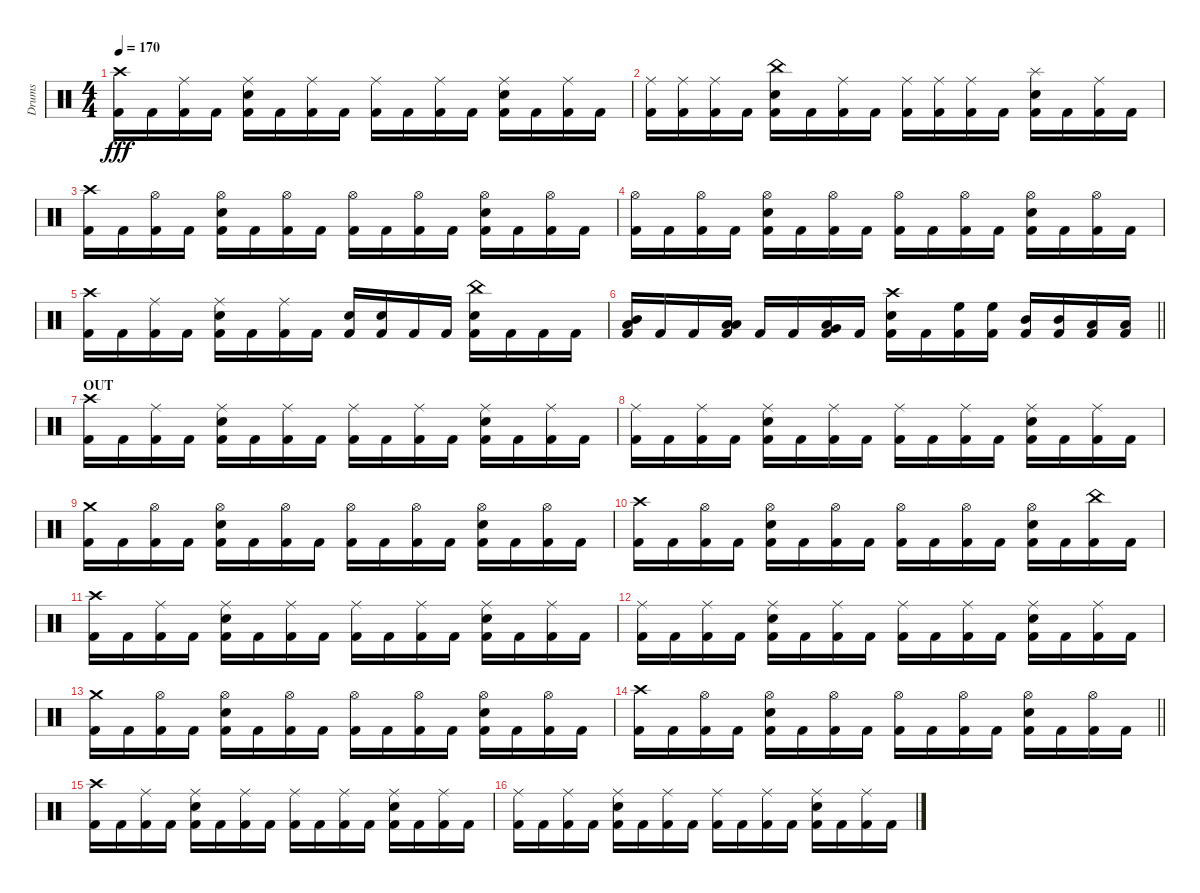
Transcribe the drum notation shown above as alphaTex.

\track ("Drums" "Drums") {instrument percussion}
\staff {score}
\articulation defaults
\ts (4 4)
\tempo 170
\clef neutral
\ks c
("Crash high (hit)" "Kick (hit) 2").16{dy fff} "Kick (hit) 2".16 ("Ride (middle)" "Kick (hit) 2").16 "Kick (hit) 2".16 ("Ride (middle)" "Snare (hit) 2" "Kick (hit) 2").16 "Kick (hit) 2".16 ("Ride (middle)" "Kick (hit) 2").16 "Kick (hit) 2".16 ("Ride (middle)" "Kick (hit) 2").16 "Kick (hit) 2".16 ("Ride (middle)" "Kick (hit) 2").16 "Kick (hit) 2".16 ("Ride (middle)" "Snare (hit) 2" "Kick (hit) 2").16 "Kick (hit) 2".16 ("Ride (middle)" "Kick (hit) 2").16 "Kick (hit) 2".16 |
("Ride (middle)" "Kick (hit) 2").16 ("Ride (middle)" "Kick (hit) 2").16 ("Ride (middle)" "Kick (hit) 2").16 "Kick (hit) 2".16 ("China (hit)" "Snare (hit) 2" "Kick (hit) 2").16 "Kick (hit) 2".16 ("Ride (middle)" "Kick (hit) 2").16 "Kick (hit) 2".16 ("Ride (middle)" "Kick (hit) 2").16 ("Ride (middle)" "Kick (hit) 2").16 ("Ride (middle)" "Kick (hit) 2").16 "Kick (hit) 2".16 ("Splash (hit)" "Snare (hit) 2" "Kick (hit) 2").16 "Kick (hit) 2".16 ("Ride (middle)" "Kick (hit) 2").16 "Kick (hit) 2".16 |
("Crash high (hit)" "Kick (hit) 2").16 "Kick (hit) 2".16 ("Hi-Hat (open)" "Kick (hit) 2").16 "Kick (hit) 2".16 ("Snare (hit) 2" "Hi-Hat (open)" "Kick (hit) 2").16 "Kick (hit) 2".16 ("Hi-Hat (open)" "Kick (hit) 2").16 "Kick (hit) 2".16 ("Hi-Hat (open)" "Kick (hit) 2").16 "Kick (hit) 2".16 ("Hi-Hat (open)" "Kick (hit) 2").16 "Kick (hit) 2".16 ("Snare (hit) 2" "Hi-Hat (open)" "Kick (hit) 2").16 "Kick (hit) 2".16 ("Hi-Hat (open)" "Kick (hit) 2").16 "Kick (hit) 2".16 |
("Hi-Hat (open)" "Kick (hit) 2").16 "Kick (hit) 2".16 ("Hi-Hat (open)" "Kick (hit) 2").16 "Kick (hit) 2".16 ("Snare (hit) 2" "Hi-Hat (open)" "Kick (hit) 2").16 "Kick (hit) 2".16 ("Hi-Hat (open)" "Kick (hit) 2").16 "Kick (hit) 2".16 ("Hi-Hat (open)" "Kick (hit) 2").16 "Kick (hit) 2".16 ("Hi-Hat (open)" "Kick (hit) 2").16 "Kick (hit) 2".16 ("Snare (hit) 2" "Hi-Hat (open)" "Kick (hit) 2").16 "Kick (hit) 2".16 ("Hi-Hat (open)" "Kick (hit) 2").16 "Kick (hit) 2".16 |
("Crash high (hit)" "Kick (hit) 2").16 "Kick (hit) 2".16 ("Ride (middle)" "Kick (hit) 2").16 "Kick (hit) 2".16 ("Ride (middle)" "Snare (hit) 2" "Kick (hit) 2").16 "Kick (hit) 2".16 ("Ride (middle)" "Kick (hit) 2").16 "Kick (hit) 2".16 ("Snare (hit) 2" "Kick (hit) 2").16 ("Snare (hit) 2" "Kick (hit) 2").16 "Kick (hit) 2".16 "Kick (hit) 2".16 ("China (hit)" "Snare (hit) 2" "Kick (hit) 2").16 "Kick (hit) 2".16 "Kick (hit) 2".16 "Kick (hit) 2".16 |
\barLineRight lightlight
("Mid Tom (hit)" "Low Floor Tom (hit)" "Kick (hit) 2").16 "Kick (hit) 2".16 "Kick (hit) 2".16 ("Low Tom (hit)" "Low Floor Tom (hit)" "Kick (hit) 2").16 "Kick (hit) 2".16 "Kick (hit) 2".16 ("Very Low Tom (hit)" "Low Floor Tom (hit)" "Kick (hit) 2").16 "Kick (hit) 2".16 ("Crash high (hit)" "Snare (hit) 2" "Kick (hit) 2").16 "Kick (hit) 2".16 ("High Floor Tom (hit)" "Kick (hit) 2").16 ("High Floor Tom (hit)" "Kick (hit) 2").16 ("Mid Tom (hit)" "Kick (hit) 2").16 ("Mid Tom (hit)" "Kick (hit) 2").16 ("Low Tom (hit)" "Kick (hit) 2").16 ("Low Tom (hit)" "Kick (hit) 2").16 |
\section ("" "OUT")
("Crash high (hit)" "Kick (hit) 2").16 "Kick (hit) 2".16 ("Ride (middle)" "Kick (hit) 2").16 "Kick (hit) 2".16 ("Ride (middle)" "Snare (hit) 2" "Kick (hit) 2").16 "Kick (hit) 2".16 ("Ride (middle)" "Kick (hit) 2").16 "Kick (hit) 2".16 ("Ride (middle)" "Kick (hit) 2").16 "Kick (hit) 2".16 ("Ride (middle)" "Kick (hit) 2").16 "Kick (hit) 2".16 ("Ride (middle)" "Snare (hit) 2" "Kick (hit) 2").16 "Kick (hit) 2".16 ("Ride (middle)" "Kick (hit) 2").16 "Kick (hit) 2".16 |
("Ride (middle)" "Kick (hit) 2").16 "Kick (hit) 2".16 ("Ride (middle)" "Kick (hit) 2").16 "Kick (hit) 2".16 ("Ride (middle)" "Snare (hit) 2" "Kick (hit) 2").16 "Kick (hit) 2".16 ("Ride (middle)" "Kick (hit) 2").16 "Kick (hit) 2".16 ("Ride (middle)" "Kick (hit) 2").16 "Kick (hit) 2".16 ("Ride (middle)" "Kick (hit) 2").16 "Kick (hit) 2".16 ("Ride (middle)" "Snare (hit) 2" "Kick (hit) 2").16 "Kick (hit) 2".16 ("Ride (middle)" "Kick (hit) 2").16 "Kick (hit) 2".16 |
("Crash medium (hit)" "Kick (hit) 2").16 "Kick (hit) 2".16 ("Hi-Hat (open)" "Kick (hit) 2").16 "Kick (hit) 2".16 ("Snare (hit) 2" "Hi-Hat (open)" "Kick (hit) 2").16 "Kick (hit) 2".16 ("Hi-Hat (open)" "Kick (hit) 2").16 "Kick (hit) 2".16 ("Hi-Hat (open)" "Kick (hit) 2").16 "Kick (hit) 2".16 ("Hi-Hat (open)" "Kick (hit) 2").16 "Kick (hit) 2".16 ("Snare (hit) 2" "Hi-Hat (open)" "Kick (hit) 2").16 "Kick (hit) 2".16 ("Hi-Hat (open)" "Kick (hit) 2").16 "Kick (hit) 2".16 |
("Crash high (hit)" "Kick (hit) 2").16 "Kick (hit) 2".16 ("Hi-Hat (open)" "Kick (hit) 2").16 "Kick (hit) 2".16 ("Snare (hit) 2" "Hi-Hat (open)" "Kick (hit) 2").16 "Kick (hit) 2".16 ("Hi-Hat (open)" "Kick (hit) 2").16 "Kick (hit) 2".16 ("Hi-Hat (open)" "Kick (hit) 2").16 "Kick (hit) 2".16 ("Hi-Hat (open)" "Kick (hit) 2").16 "Kick (hit) 2".16 ("Snare (hit) 2" "Hi-Hat (open)" "Kick (hit) 2").16 "Kick (hit) 2".16 ("China (hit)" "Kick (hit) 2").16 "Kick (hit) 2".16 |
("Crash high (hit)" "Kick (hit) 2").16 "Kick (hit) 2".16 ("Ride (middle)" "Kick (hit) 2").16 "Kick (hit) 2".16 ("Ride (middle)" "Snare (hit) 2" "Kick (hit) 2").16 "Kick (hit) 2".16 ("Ride (middle)" "Kick (hit) 2").16 "Kick (hit) 2".16 ("Ride (middle)" "Kick (hit) 2").16 "Kick (hit) 2".16 ("Ride (middle)" "Kick (hit) 2").16 "Kick (hit) 2".16 ("Ride (middle)" "Snare (hit) 2" "Kick (hit) 2").16 "Kick (hit) 2".16 ("Ride (middle)" "Kick (hit) 2").16 "Kick (hit) 2".16 |
("Ride (middle)" "Kick (hit) 2").16 "Kick (hit) 2".16 ("Ride (middle)" "Kick (hit) 2").16 "Kick (hit) 2".16 ("Ride (middle)" "Snare (hit) 2" "Kick (hit) 2").16 "Kick (hit) 2".16 ("Ride (middle)" "Kick (hit) 2").16 "Kick (hit) 2".16 ("Ride (middle)" "Kick (hit) 2").16 "Kick (hit) 2".16 ("Ride (middle)" "Kick (hit) 2").16 "Kick (hit) 2".16 ("Ride (middle)" "Snare (hit) 2" "Kick (hit) 2").16 "Kick (hit) 2".16 ("Ride (middle)" "Kick (hit) 2").16 "Kick (hit) 2".16 |
("Crash medium (hit)" "Kick (hit) 2").16 "Kick (hit) 2".16 ("Hi-Hat (open)" "Kick (hit) 2").16 "Kick (hit) 2".16 ("Snare (hit) 2" "Hi-Hat (open)" "Kick (hit) 2").16 "Kick (hit) 2".16 ("Hi-Hat (open)" "Kick (hit) 2").16 "Kick (hit) 2".16 ("Hi-Hat (open)" "Kick (hit) 2").16 "Kick (hit) 2".16 ("Hi-Hat (open)" "Kick (hit) 2").16 "Kick (hit) 2".16 ("Snare (hit) 2" "Hi-Hat (open)" "Kick (hit) 2").16 "Kick (hit) 2".16 ("Hi-Hat (open)" "Kick (hit) 2").16 "Kick (hit) 2".16 |
\barLineRight lightlight
("Crash high (hit)" "Kick (hit) 2").16 "Kick (hit) 2".16 ("Hi-Hat (open)" "Kick (hit) 2").16 "Kick (hit) 2".16 ("Snare (hit) 2" "Hi-Hat (open)" "Kick (hit) 2").16 "Kick (hit) 2".16 ("Hi-Hat (open)" "Kick (hit) 2").16 "Kick (hit) 2".16 ("Hi-Hat (open)" "Kick (hit) 2").16 "Kick (hit) 2".16 ("Hi-Hat (open)" "Kick (hit) 2").16 "Kick (hit) 2".16 ("Snare (hit) 2" "Hi-Hat (open)" "Kick (hit) 2").16 "Kick (hit) 2".16 ("Hi-Hat (open)" "Kick (hit) 2").16 "Kick (hit) 2".16 |
("Crash high (hit)" "Kick (hit) 2").16 "Kick (hit) 2".16 ("Ride (middle)" "Kick (hit) 2").16 "Kick (hit) 2".16 ("Ride (middle)" "Snare (hit) 2" "Kick (hit) 2").16 "Kick (hit) 2".16 ("Ride (middle)" "Kick (hit) 2").16 "Kick (hit) 2".16 ("Ride (middle)" "Kick (hit) 2").16 "Kick (hit) 2".16 ("Ride (middle)" "Kick (hit) 2").16 "Kick (hit) 2".16 ("Ride (middle)" "Snare (hit) 2" "Kick (hit) 2").16 "Kick (hit) 2".16 ("Ride (middle)" "Kick (hit) 2").16 "Kick (hit) 2".16 |
("Ride (middle)" "Kick (hit) 2").16 "Kick (hit) 2".16 ("Ride (middle)" "Kick (hit) 2").16 "Kick (hit) 2".16 ("Ride (middle)" "Snare (hit) 2" "Kick (hit) 2").16 "Kick (hit) 2".16 ("Ride (middle)" "Kick (hit) 2").16 "Kick (hit) 2".16 ("Ride (middle)" "Kick (hit) 2").16 "Kick (hit) 2".16 ("Ride (middle)" "Kick (hit) 2").16 "Kick (hit) 2".16 ("Ride (middle)" "Snare (hit) 2" "Kick (hit) 2").16 "Kick (hit) 2".16 ("Ride (middle)" "Kick (hit) 2").16 "Kick (hit) 2".16
